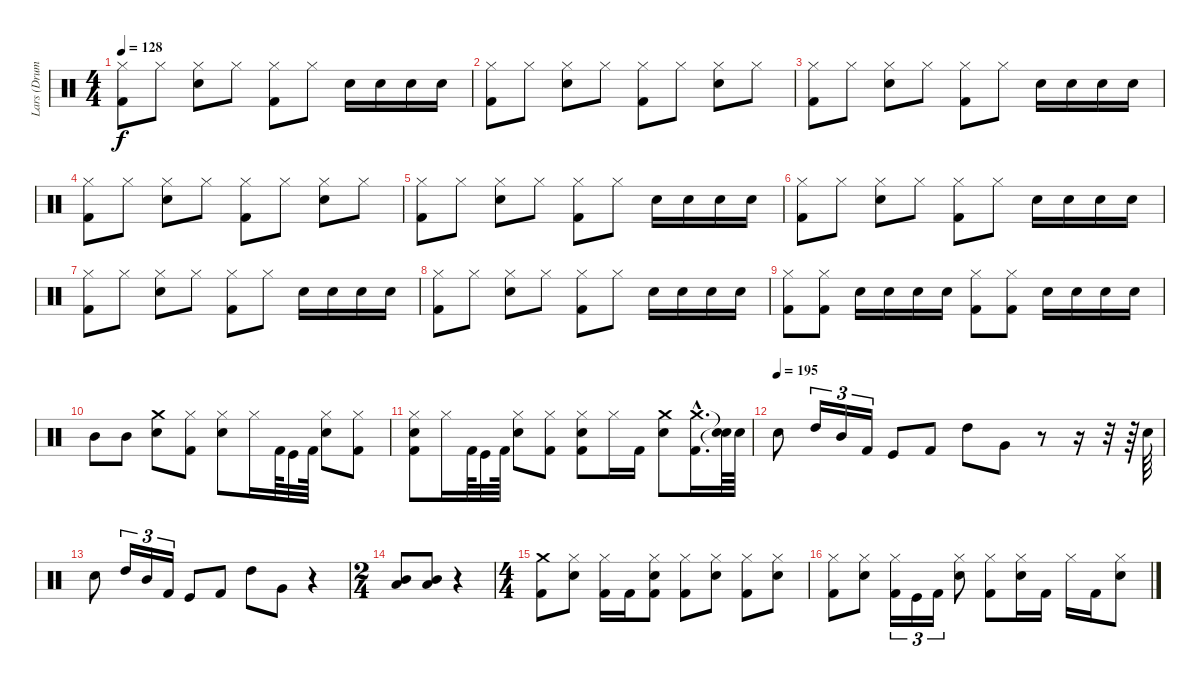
\track ("Lars (Drums)" "Lars (Drum") {instrument percussion}
\staff {score}
\articulation defaults
\ts (4 4)
\tempo 128
\clef neutral
\ks c
("Hi-Hat (closed)" "Kick (hit) 2").8{dy f} "Hi-Hat (closed)".8 ("Snare (hit) 2" "Hi-Hat (closed)").8 "Hi-Hat (closed)".8 ("Hi-Hat (closed)" "Kick (hit) 2").8 "Hi-Hat (closed)".8 "Snare (hit) 2".16 "Snare (hit) 2".16 "Snare (hit) 2".16 "Snare (hit) 2".16 |
("Hi-Hat (closed)" "Kick (hit) 2").8 "Hi-Hat (closed)".8 ("Snare (hit) 2" "Hi-Hat (closed)").8 "Hi-Hat (closed)".8 ("Hi-Hat (closed)" "Kick (hit) 2").8 "Hi-Hat (closed)".8 ("Snare (hit) 2" "Hi-Hat (closed)").8 "Hi-Hat (closed)".8 |
("Hi-Hat (closed)" "Kick (hit) 2").8 "Hi-Hat (closed)".8 ("Snare (hit) 2" "Hi-Hat (closed)").8 "Hi-Hat (closed)".8 ("Hi-Hat (closed)" "Kick (hit) 2").8 "Hi-Hat (closed)".8 "Snare (hit) 2".16 "Snare (hit) 2".16 "Snare (hit) 2".16 "Snare (hit) 2".16 |
("Hi-Hat (closed)" "Kick (hit) 2").8 "Hi-Hat (closed)".8 ("Snare (hit) 2" "Hi-Hat (closed)").8 "Hi-Hat (closed)".8 ("Hi-Hat (closed)" "Kick (hit) 2").8 "Hi-Hat (closed)".8 ("Snare (hit) 2" "Hi-Hat (closed)").8 "Hi-Hat (closed)".8 |
("Hi-Hat (closed)" "Kick (hit) 2").8 "Hi-Hat (closed)".8 ("Snare (hit) 2" "Hi-Hat (closed)").8 "Hi-Hat (closed)".8 ("Hi-Hat (closed)" "Kick (hit) 2").8 "Hi-Hat (closed)".8 "Snare (hit) 2".16 "Snare (hit) 2".16 "Snare (hit) 2".16 "Snare (hit) 2".16 |
("Hi-Hat (closed)" "Kick (hit) 2").8 "Hi-Hat (closed)".8 ("Snare (hit) 2" "Hi-Hat (closed)").8 "Hi-Hat (closed)".8 ("Hi-Hat (closed)" "Kick (hit) 2").8 "Hi-Hat (closed)".8 "Snare (hit) 2".16 "Snare (hit) 2".16 "Snare (hit) 2".16 "Snare (hit) 2".16 |
("Hi-Hat (closed)" "Kick (hit) 2").8 "Hi-Hat (closed)".8 ("Snare (hit) 2" "Hi-Hat (closed)").8 "Hi-Hat (closed)".8 ("Hi-Hat (closed)" "Kick (hit) 2").8 "Hi-Hat (closed)".8 "Snare (hit) 2".16 "Snare (hit) 2".16 "Snare (hit) 2".16 "Snare (hit) 2".16 |
("Hi-Hat (closed)" "Kick (hit) 2").8 "Hi-Hat (closed)".8 ("Snare (hit) 2" "Hi-Hat (closed)").8 "Hi-Hat (closed)".8 ("Hi-Hat (closed)" "Kick (hit) 2").8 "Hi-Hat (closed)".8 "Snare (hit) 2".16 "Snare (hit) 2".16 "Snare (hit) 2".16 "Snare (hit) 2".16 |
("Kick (hit) 2" "Hi-Hat (closed)").8 ("Kick (hit) 2" "Hi-Hat (closed)").8 "Snare (hit) 2".16 "Snare (hit) 2".16 "Snare (hit) 2".16 "Snare (hit) 2".16 ("Kick (hit) 2" "Hi-Hat (closed)").8 ("Kick (hit) 2" "Hi-Hat (closed)").8 "Snare (hit) 2".16 "Snare (hit) 2".16 "Snare (hit) 2".16 "Snare (hit) 2".16 |
"Mid Tom (hit)".8 "Mid Tom (hit)".8 ("Crash medium (hit)" "Snare (hit) 2").8 ("Kick (hit) 2" "Hi-Hat (closed)").8 ("Snare (hit) 2" "Hi-Hat (closed)").8 "Hi-Hat (closed)".16 "Kick (hit) 2".64 "Kick (hit)".32 "Kick (hit) 2".64 ("Snare (hit) 2" "Hi-Hat (closed)").8 ("Kick (hit) 2" "Hi-Hat (closed)").8 |
("Hi-Hat (closed)" "Snare (hit) 2" "Kick (hit) 2").8 "Hi-Hat (closed)".16 "Kick (hit) 2".64 "Kick (hit)".32 "Kick (hit) 2".64 ("Snare (hit) 2" "Hi-Hat (closed)").8 ("Hi-Hat (closed)" "Kick (hit) 2").8 ("Snare (hit) 2" "Hi-Hat (closed)" "Kick (hit) 2").8 "Hi-Hat (closed)".16 "Kick (hit) 2".16 ("Crash medium (hit)" "Snare (hit) 2").8 ("Crash medium (hit)"{hac} "Kick (hit) 2"{hac}).16{d} ("Snare (hit)"{t} "Snare (hit)"{t}).64 "Snare (hit) 2".64 |
\tempo (195)
"Snare (hit) 2".8 "High Tom (hit)".16{tu (3 2)} "Mid Tom (hit)".16{tu (3 2)} "Kick (hit) 2".16{tu (3 2)} "Kick (hit)".8 "Kick (hit) 2".8 "High Tom (hit)".8 "Very Low Tom (hit)".8 r.8 r.16 r.32 r.64 "Snare (hit) 2".64 |
"Snare (hit) 2".8 "High Tom (hit)".16{tu (3 2)} "Mid Tom (hit)".16{tu (3 2)} "Kick (hit) 2".16{tu (3 2)} "Kick (hit)".8 "Kick (hit) 2".8 "High Tom (hit)".8 "Very Low Tom (hit)".8 r.4 |
\ts (2 4)
("Mid Tom (hit)" "Low Tom (hit)").8 ("Mid Tom (hit)" "Low Tom (hit)").8 r.4 |
\ts (4 4)
("Kick (hit) 2" "Crash medium (hit)").8 ("Hi-Hat (closed)" "Snare (hit) 2").8 ("Kick (hit) 2" "Hi-Hat (closed)").16 "Kick (hit) 2".16 ("Kick (hit) 2" "Snare (hit) 2" "Hi-Hat (closed)").8 ("Kick (hit) 2" "Hi-Hat (closed)").8 ("Snare (hit) 2" "Hi-Hat (closed)").8 ("Kick (hit) 2" "Hi-Hat (closed)").8 ("Snare (hit) 2" "Hi-Hat (closed)").8 |
("Kick (hit) 2" "Hi-Hat (closed)").8 ("Snare (hit) 2" "Hi-Hat (closed)").8 ("Kick (hit) 2" "Hi-Hat (closed)").16{tu (3 2)} "Kick (hit)".16{tu (3 2)} "Kick (hit) 2".16{tu (3 2)} ("Snare (hit) 2" "Hi-Hat (closed)").8 ("Kick (hit) 2" "Hi-Hat (closed)").8 ("Snare (hit) 2" "Hi-Hat (closed)").16 "Kick (hit) 2".16 "Hi-Hat (closed)".16 "Kick (hit) 2".16 ("Snare (hit) 2" "Hi-Hat (closed)").8
